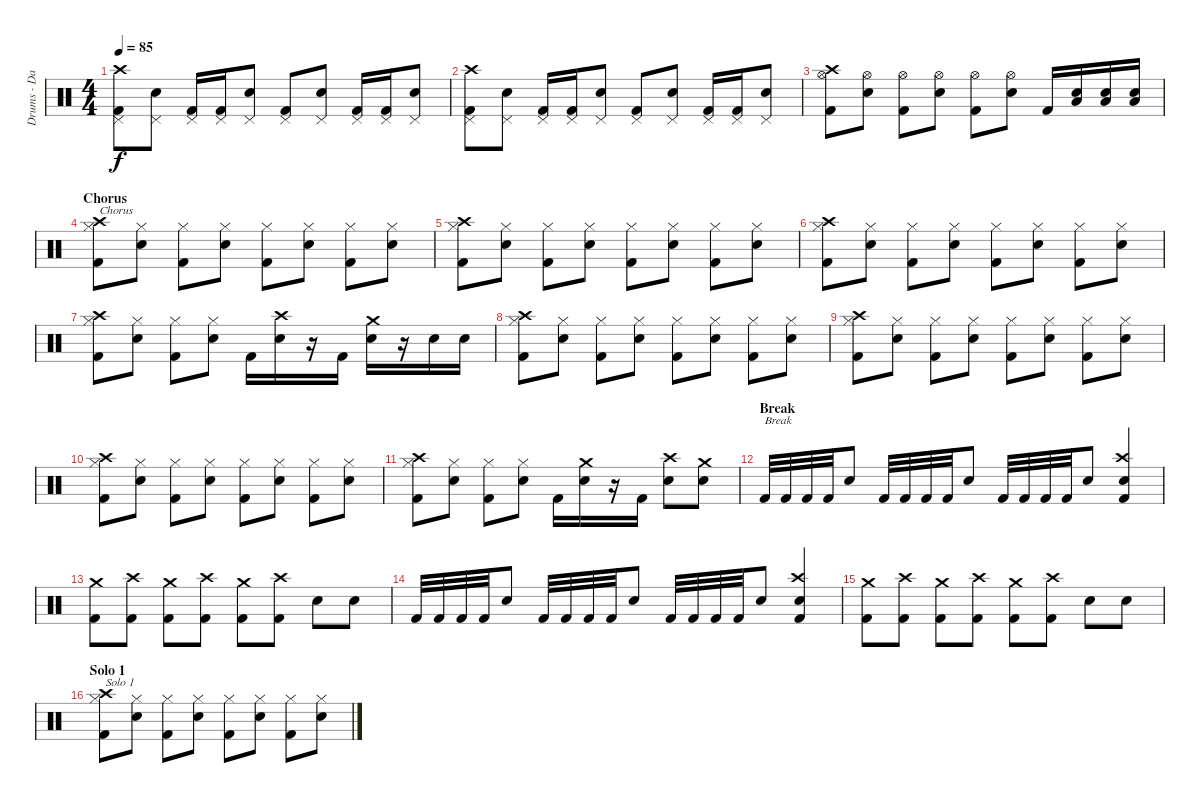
\track ("Drums - Daniel Zimmermann" "Drums - Da") {instrument percussion}
\staff {score}
\articulation defaults
\ts (4 4)
\tempo 85
\clef neutral
\ks c
("Pedal Hi-Hat (hit)" "Kick (hit) 2" "Crash high (hit)").8{dy f} ("Pedal Hi-Hat (hit)" "Snare (hit) 2").8 ("Pedal Hi-Hat (hit)" "Kick (hit) 2").16 ("Pedal Hi-Hat (hit)" "Kick (hit) 2").16 ("Pedal Hi-Hat (hit)" "Snare (hit) 2").8 ("Pedal Hi-Hat (hit)" "Kick (hit) 2").8 ("Pedal Hi-Hat (hit)" "Snare (hit) 2").8 ("Pedal Hi-Hat (hit)" "Kick (hit) 2").16 ("Pedal Hi-Hat (hit)" "Kick (hit) 2").16 ("Pedal Hi-Hat (hit)" "Snare (hit) 2").8 |
("Pedal Hi-Hat (hit)" "Kick (hit) 2" "Crash high (hit)").8 ("Pedal Hi-Hat (hit)" "Snare (hit) 2").8 ("Pedal Hi-Hat (hit)" "Kick (hit) 2").16 ("Pedal Hi-Hat (hit)" "Kick (hit) 2").16 ("Pedal Hi-Hat (hit)" "Snare (hit) 2").8 ("Pedal Hi-Hat (hit)" "Kick (hit) 2").8 ("Pedal Hi-Hat (hit)" "Snare (hit) 2").8 ("Pedal Hi-Hat (hit)" "Kick (hit) 2").16 ("Pedal Hi-Hat (hit)" "Kick (hit) 2").16 ("Pedal Hi-Hat (hit)" "Snare (hit) 2").8 |
("Hi-Hat (open)" "Kick (hit) 2" "Crash high (hit)").8 ("Hi-Hat (open)" "Snare (hit) 2").8 ("Hi-Hat (open)" "Kick (hit) 2").8 ("Hi-Hat (open)" "Snare (hit) 2").8 ("Hi-Hat (open)" "Kick (hit) 2").8 ("Hi-Hat (open)" "Snare (hit) 2").8 "Kick (hit) 2".16 ("Snare (hit) 2" "Low Floor Tom (hit)").16 ("Snare (hit) 2" "Low Floor Tom (hit)").16 ("Snare (hit) 2" "Low Floor Tom (hit)").16 |
\section ("" "Chorus")
("Hi-Hat (closed)" "Kick (hit) 2" "Crash high (hit)").8{txt "Chorus"} ("Hi-Hat (closed)" "Snare (hit) 2").8 ("Hi-Hat (closed)" "Kick (hit) 2").8 ("Hi-Hat (closed)" "Snare (hit) 2").8 ("Hi-Hat (closed)" "Kick (hit) 2").8 ("Hi-Hat (closed)" "Snare (hit) 2").8 ("Hi-Hat (closed)" "Kick (hit) 2").8 ("Hi-Hat (closed)" "Snare (hit) 2").8 |
("Hi-Hat (closed)" "Kick (hit) 2" "Crash high (hit)").8 ("Hi-Hat (closed)" "Snare (hit) 2").8 ("Hi-Hat (closed)" "Kick (hit) 2").8 ("Hi-Hat (closed)" "Snare (hit) 2").8 ("Hi-Hat (closed)" "Kick (hit) 2").8 ("Hi-Hat (closed)" "Snare (hit) 2").8 ("Hi-Hat (closed)" "Kick (hit) 2").8 ("Hi-Hat (closed)" "Snare (hit) 2").8 |
("Hi-Hat (closed)" "Kick (hit) 2" "Crash high (hit)").8 ("Hi-Hat (closed)" "Snare (hit) 2").8 ("Hi-Hat (closed)" "Kick (hit) 2").8 ("Hi-Hat (closed)" "Snare (hit) 2").8 ("Hi-Hat (closed)" "Kick (hit) 2").8 ("Hi-Hat (closed)" "Snare (hit) 2").8 ("Hi-Hat (closed)" "Kick (hit) 2").8 ("Hi-Hat (closed)" "Snare (hit) 2").8 |
("Hi-Hat (closed)" "Kick (hit) 2" "Crash high (hit)").8 ("Hi-Hat (closed)" "Snare (hit) 2").8 ("Hi-Hat (closed)" "Kick (hit) 2").8 ("Hi-Hat (closed)" "Snare (hit) 2").8 "Kick (hit) 2".16 ("Snare (hit) 2" "Crash high (hit)").16 r.16 "Kick (hit) 2".16 ("Snare (hit) 2" "Crash medium (hit)").16 r.16 "Snare (hit) 2".16 "Snare (hit) 2".16 |
("Hi-Hat (closed)" "Kick (hit) 2" "Crash high (hit)").8 ("Hi-Hat (closed)" "Snare (hit) 2").8 ("Hi-Hat (closed)" "Kick (hit) 2").8 ("Hi-Hat (closed)" "Snare (hit) 2").8 ("Hi-Hat (closed)" "Kick (hit) 2").8 ("Hi-Hat (closed)" "Snare (hit) 2").8 ("Hi-Hat (closed)" "Kick (hit) 2").8 ("Hi-Hat (closed)" "Snare (hit) 2").8 |
("Hi-Hat (closed)" "Kick (hit) 2" "Crash high (hit)").8 ("Hi-Hat (closed)" "Snare (hit) 2").8 ("Hi-Hat (closed)" "Kick (hit) 2").8 ("Hi-Hat (closed)" "Snare (hit) 2").8 ("Hi-Hat (closed)" "Kick (hit) 2").8 ("Hi-Hat (closed)" "Snare (hit) 2").8 ("Hi-Hat (closed)" "Kick (hit) 2").8 ("Hi-Hat (closed)" "Snare (hit) 2").8 |
("Hi-Hat (closed)" "Kick (hit) 2" "Crash high (hit)").8 ("Hi-Hat (closed)" "Snare (hit) 2").8 ("Hi-Hat (closed)" "Kick (hit) 2").8 ("Hi-Hat (closed)" "Snare (hit) 2").8 ("Hi-Hat (closed)" "Kick (hit) 2").8 ("Hi-Hat (closed)" "Snare (hit) 2").8 ("Hi-Hat (closed)" "Kick (hit) 2").8 ("Hi-Hat (closed)" "Snare (hit) 2").8 |
("Hi-Hat (closed)" "Kick (hit) 2" "Crash high (hit)").8 ("Hi-Hat (closed)" "Snare (hit) 2").8 ("Hi-Hat (closed)" "Kick (hit) 2").8 ("Hi-Hat (closed)" "Snare (hit) 2").8 "Kick (hit) 2".16 ("Snare (hit) 2" "Crash medium (hit)").16 r.16 "Kick (hit) 2".16 ("Snare (hit) 2" "Crash high (hit)").8 ("Snare (hit) 2" "Crash medium (hit)").8 |
\section ("" "Break")
"Kick (hit) 2".32{txt "Break"} "Kick (hit) 2".32 "Kick (hit) 2".32 "Kick (hit) 2".32 "Snare (hit) 2".8 "Kick (hit) 2".32 "Kick (hit) 2".32 "Kick (hit) 2".32 "Kick (hit) 2".32 "Snare (hit) 2".8 "Kick (hit) 2".32 "Kick (hit) 2".32 "Kick (hit) 2".32 "Kick (hit) 2".32 "Snare (hit) 2".8 ("Kick (hit) 2" "Snare (hit) 2" "Crash high (hit)").4 |
("Kick (hit) 2" "Crash medium (hit)").8 ("Kick (hit) 2" "Crash high (hit)").8 ("Kick (hit) 2" "Crash medium (hit)").8 ("Kick (hit) 2" "Crash high (hit)").8 ("Kick (hit) 2" "Crash medium (hit)").8 ("Kick (hit) 2" "Crash high (hit)").8 "Snare (hit) 2".8 "Snare (hit) 2".8 |
"Kick (hit) 2".32 "Kick (hit) 2".32 "Kick (hit) 2".32 "Kick (hit) 2".32 "Snare (hit) 2".8 "Kick (hit) 2".32 "Kick (hit) 2".32 "Kick (hit) 2".32 "Kick (hit) 2".32 "Snare (hit) 2".8 "Kick (hit) 2".32 "Kick (hit) 2".32 "Kick (hit) 2".32 "Kick (hit) 2".32 "Snare (hit) 2".8 ("Kick (hit) 2" "Snare (hit) 2" "Crash high (hit)").4 |
("Kick (hit) 2" "Crash medium (hit)").8 ("Kick (hit) 2" "Crash high (hit)").8 ("Kick (hit) 2" "Crash medium (hit)").8 ("Kick (hit) 2" "Crash high (hit)").8 ("Kick (hit) 2" "Crash medium (hit)").8 ("Kick (hit) 2" "Crash high (hit)").8 "Snare (hit) 2".8 "Snare (hit) 2".8 |
\section ("" "Solo 1")
("Hi-Hat (closed)" "Kick (hit) 2" "Crash high (hit)").8{txt "Solo 1"} ("Hi-Hat (closed)" "Snare (hit) 2").8 ("Hi-Hat (closed)" "Kick (hit) 2").8 ("Hi-Hat (closed)" "Snare (hit) 2").8 ("Hi-Hat (closed)" "Kick (hit) 2").8 ("Hi-Hat (closed)" "Snare (hit) 2").8 ("Hi-Hat (closed)" "Kick (hit) 2").8 ("Hi-Hat (closed)" "Snare (hit) 2").8
